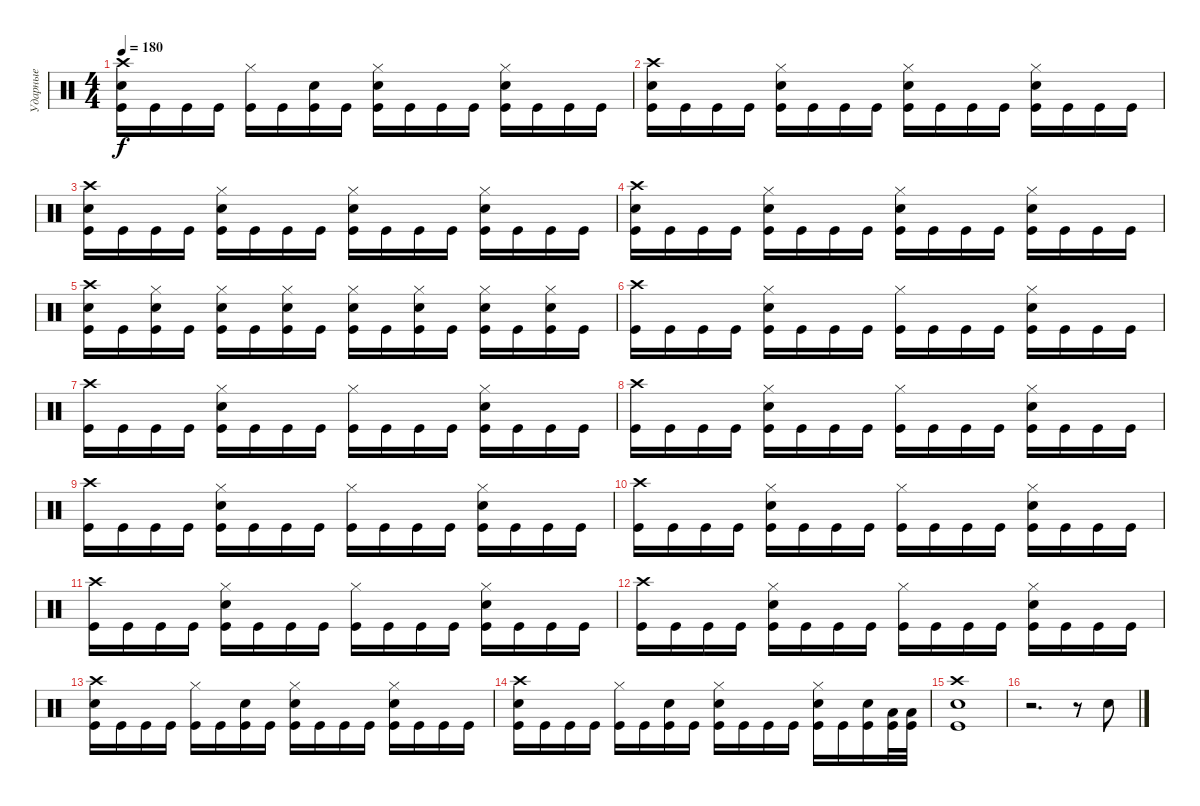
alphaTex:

\track ("Ударные" "Ударные") {instrument percussion}
\staff {score}
\articulation defaults
\ts (4 4)
\tempo 180
\clef neutral
\ks c
("Crash high (hit)" "Electric Snare (hit)" "Kick (hit)").16{dy f} "Kick (hit)".16 "Kick (hit)".16 "Kick (hit)".16 ("Hi-Hat (closed)" "Kick (hit)").16 "Kick (hit)".16 ("Electric Snare (hit)" "Kick (hit)").16 "Kick (hit)".16 ("Hi-Hat (closed)" "Electric Snare (hit)" "Kick (hit)").16 "Kick (hit)".16 "Kick (hit)".16 "Kick (hit)".16 ("Hi-Hat (closed)" "Electric Snare (hit)" "Kick (hit)").16 "Kick (hit)".16 "Kick (hit)".16 "Kick (hit)".16 |
("Crash high (hit)" "Electric Snare (hit)" "Kick (hit)").16 "Kick (hit)".16 "Kick (hit)".16 "Kick (hit)".16 ("Hi-Hat (closed)" "Electric Snare (hit)" "Kick (hit)").16 "Kick (hit)".16 "Kick (hit)".16 "Kick (hit)".16 ("Hi-Hat (closed)" "Electric Snare (hit)" "Kick (hit)").16 "Kick (hit)".16 "Kick (hit)".16 "Kick (hit)".16 ("Hi-Hat (closed)" "Electric Snare (hit)" "Kick (hit)").16 "Kick (hit)".16 "Kick (hit)".16 "Kick (hit)".16 |
("Crash high (hit)" "Electric Snare (hit)" "Kick (hit)").16 "Kick (hit)".16 "Kick (hit)".16 "Kick (hit)".16 ("Hi-Hat (closed)" "Electric Snare (hit)" "Kick (hit)").16 "Kick (hit)".16 "Kick (hit)".16 "Kick (hit)".16 ("Hi-Hat (closed)" "Electric Snare (hit)" "Kick (hit)").16 "Kick (hit)".16 "Kick (hit)".16 "Kick (hit)".16 ("Hi-Hat (closed)" "Electric Snare (hit)" "Kick (hit)").16 "Kick (hit)".16 "Kick (hit)".16 "Kick (hit)".16 |
("Crash high (hit)" "Electric Snare (hit)" "Kick (hit)").16 "Kick (hit)".16 "Kick (hit)".16 "Kick (hit)".16 ("Hi-Hat (closed)" "Electric Snare (hit)" "Kick (hit)").16 "Kick (hit)".16 "Kick (hit)".16 "Kick (hit)".16 ("Hi-Hat (closed)" "Electric Snare (hit)" "Kick (hit)").16 "Kick (hit)".16 "Kick (hit)".16 "Kick (hit)".16 ("Hi-Hat (closed)" "Electric Snare (hit)" "Kick (hit)").16 "Kick (hit)".16 "Kick (hit)".16 "Kick (hit)".16 |
("Crash high (hit)" "Electric Snare (hit)" "Kick (hit)").16 "Kick (hit)".16 ("Hi-Hat (closed)" "Electric Snare (hit)" "Kick (hit)").16 "Kick (hit)".16 ("Hi-Hat (closed)" "Electric Snare (hit)" "Kick (hit)").16 "Kick (hit)".16 ("Hi-Hat (closed)" "Electric Snare (hit)" "Kick (hit)").16 "Kick (hit)".16 ("Hi-Hat (closed)" "Electric Snare (hit)" "Kick (hit)").16 "Kick (hit)".16 ("Hi-Hat (closed)" "Electric Snare (hit)" "Kick (hit)").16 "Kick (hit)".16 ("Hi-Hat (closed)" "Electric Snare (hit)" "Kick (hit)").16 "Kick (hit)".16 ("Hi-Hat (closed)" "Electric Snare (hit)" "Kick (hit)").16 "Kick (hit)".16 |
("Crash high (hit)" "Kick (hit)").16 "Kick (hit)".16 "Kick (hit)".16 "Kick (hit)".16 ("Hi-Hat (closed)" "Electric Snare (hit)" "Kick (hit)").16 "Kick (hit)".16 "Kick (hit)".16 "Kick (hit)".16 ("Hi-Hat (closed)" "Kick (hit)").16 "Kick (hit)".16 "Kick (hit)".16 "Kick (hit)".16 ("Hi-Hat (closed)" "Electric Snare (hit)" "Kick (hit)").16 "Kick (hit)".16 "Kick (hit)".16 "Kick (hit)".16 |
("Crash high (hit)" "Kick (hit)").16 "Kick (hit)".16 "Kick (hit)".16 "Kick (hit)".16 ("Hi-Hat (closed)" "Electric Snare (hit)" "Kick (hit)").16 "Kick (hit)".16 "Kick (hit)".16 "Kick (hit)".16 ("Hi-Hat (closed)" "Kick (hit)").16 "Kick (hit)".16 "Kick (hit)".16 "Kick (hit)".16 ("Hi-Hat (closed)" "Electric Snare (hit)" "Kick (hit)").16 "Kick (hit)".16 "Kick (hit)".16 "Kick (hit)".16 |
("Crash high (hit)" "Kick (hit)").16 "Kick (hit)".16 "Kick (hit)".16 "Kick (hit)".16 ("Hi-Hat (closed)" "Electric Snare (hit)" "Kick (hit)").16 "Kick (hit)".16 "Kick (hit)".16 "Kick (hit)".16 ("Hi-Hat (closed)" "Kick (hit)").16 "Kick (hit)".16 "Kick (hit)".16 "Kick (hit)".16 ("Hi-Hat (closed)" "Electric Snare (hit)" "Kick (hit)").16 "Kick (hit)".16 "Kick (hit)".16 "Kick (hit)".16 |
("Crash high (hit)" "Kick (hit)").16 "Kick (hit)".16 "Kick (hit)".16 "Kick (hit)".16 ("Hi-Hat (closed)" "Electric Snare (hit)" "Kick (hit)").16 "Kick (hit)".16 "Kick (hit)".16 "Kick (hit)".16 ("Hi-Hat (closed)" "Kick (hit)").16 "Kick (hit)".16 "Kick (hit)".16 "Kick (hit)".16 ("Hi-Hat (closed)" "Electric Snare (hit)" "Kick (hit)").16 "Kick (hit)".16 "Kick (hit)".16 "Kick (hit)".16 |
("Crash high (hit)" "Kick (hit)").16 "Kick (hit)".16 "Kick (hit)".16 "Kick (hit)".16 ("Hi-Hat (closed)" "Electric Snare (hit)" "Kick (hit)").16 "Kick (hit)".16 "Kick (hit)".16 "Kick (hit)".16 ("Hi-Hat (closed)" "Kick (hit)").16 "Kick (hit)".16 "Kick (hit)".16 "Kick (hit)".16 ("Hi-Hat (closed)" "Electric Snare (hit)" "Kick (hit)").16 "Kick (hit)".16 "Kick (hit)".16 "Kick (hit)".16 |
("Crash high (hit)" "Kick (hit)").16 "Kick (hit)".16 "Kick (hit)".16 "Kick (hit)".16 ("Hi-Hat (closed)" "Electric Snare (hit)" "Kick (hit)").16 "Kick (hit)".16 "Kick (hit)".16 "Kick (hit)".16 ("Hi-Hat (closed)" "Kick (hit)").16 "Kick (hit)".16 "Kick (hit)".16 "Kick (hit)".16 ("Hi-Hat (closed)" "Electric Snare (hit)" "Kick (hit)").16 "Kick (hit)".16 "Kick (hit)".16 "Kick (hit)".16 |
("Crash high (hit)" "Kick (hit)").16 "Kick (hit)".16 "Kick (hit)".16 "Kick (hit)".16 ("Hi-Hat (closed)" "Electric Snare (hit)" "Kick (hit)").16 "Kick (hit)".16 "Kick (hit)".16 "Kick (hit)".16 ("Hi-Hat (closed)" "Kick (hit)").16 "Kick (hit)".16 "Kick (hit)".16 "Kick (hit)".16 ("Hi-Hat (closed)" "Electric Snare (hit)" "Kick (hit)").16 "Kick (hit)".16 "Kick (hit)".16 "Kick (hit)".16 |
("Crash high (hit)" "Electric Snare (hit)" "Kick (hit)").16 "Kick (hit)".16 "Kick (hit)".16 "Kick (hit)".16 ("Hi-Hat (closed)" "Kick (hit)").16 "Kick (hit)".16 ("Electric Snare (hit)" "Kick (hit)").16 "Kick (hit)".16 ("Hi-Hat (closed)" "Electric Snare (hit)" "Kick (hit)").16 "Kick (hit)".16 "Kick (hit)".16 "Kick (hit)".16 ("Hi-Hat (closed)" "Electric Snare (hit)" "Kick (hit)").16 "Kick (hit)".16 "Kick (hit)".16 "Kick (hit)".16 |
("Crash high (hit)" "Electric Snare (hit)" "Kick (hit)").16 "Kick (hit)".16 "Kick (hit)".16 "Kick (hit)".16 ("Hi-Hat (closed)" "Kick (hit)").16 "Kick (hit)".16 ("Electric Snare (hit)" "Kick (hit)").16 "Kick (hit)".16 ("Hi-Hat (closed)" "Electric Snare (hit)" "Kick (hit)").16 "Kick (hit)".16 "Kick (hit)".16 "Kick (hit)".16 ("Hi-Hat (closed)" "Electric Snare (hit)" "Kick (hit)").16 "Kick (hit)".16 ("Electric Snare (hit)" "Kick (hit)").16 ("Low Tom (hit)" "Kick (hit)").32 ("Low Tom (hit)" "Kick (hit)").32 |
("Crash high (hit)" "Electric Snare (hit)" "Kick (hit)").1 |
r.2{d} r.8 "Electric Snare (hit)".8
